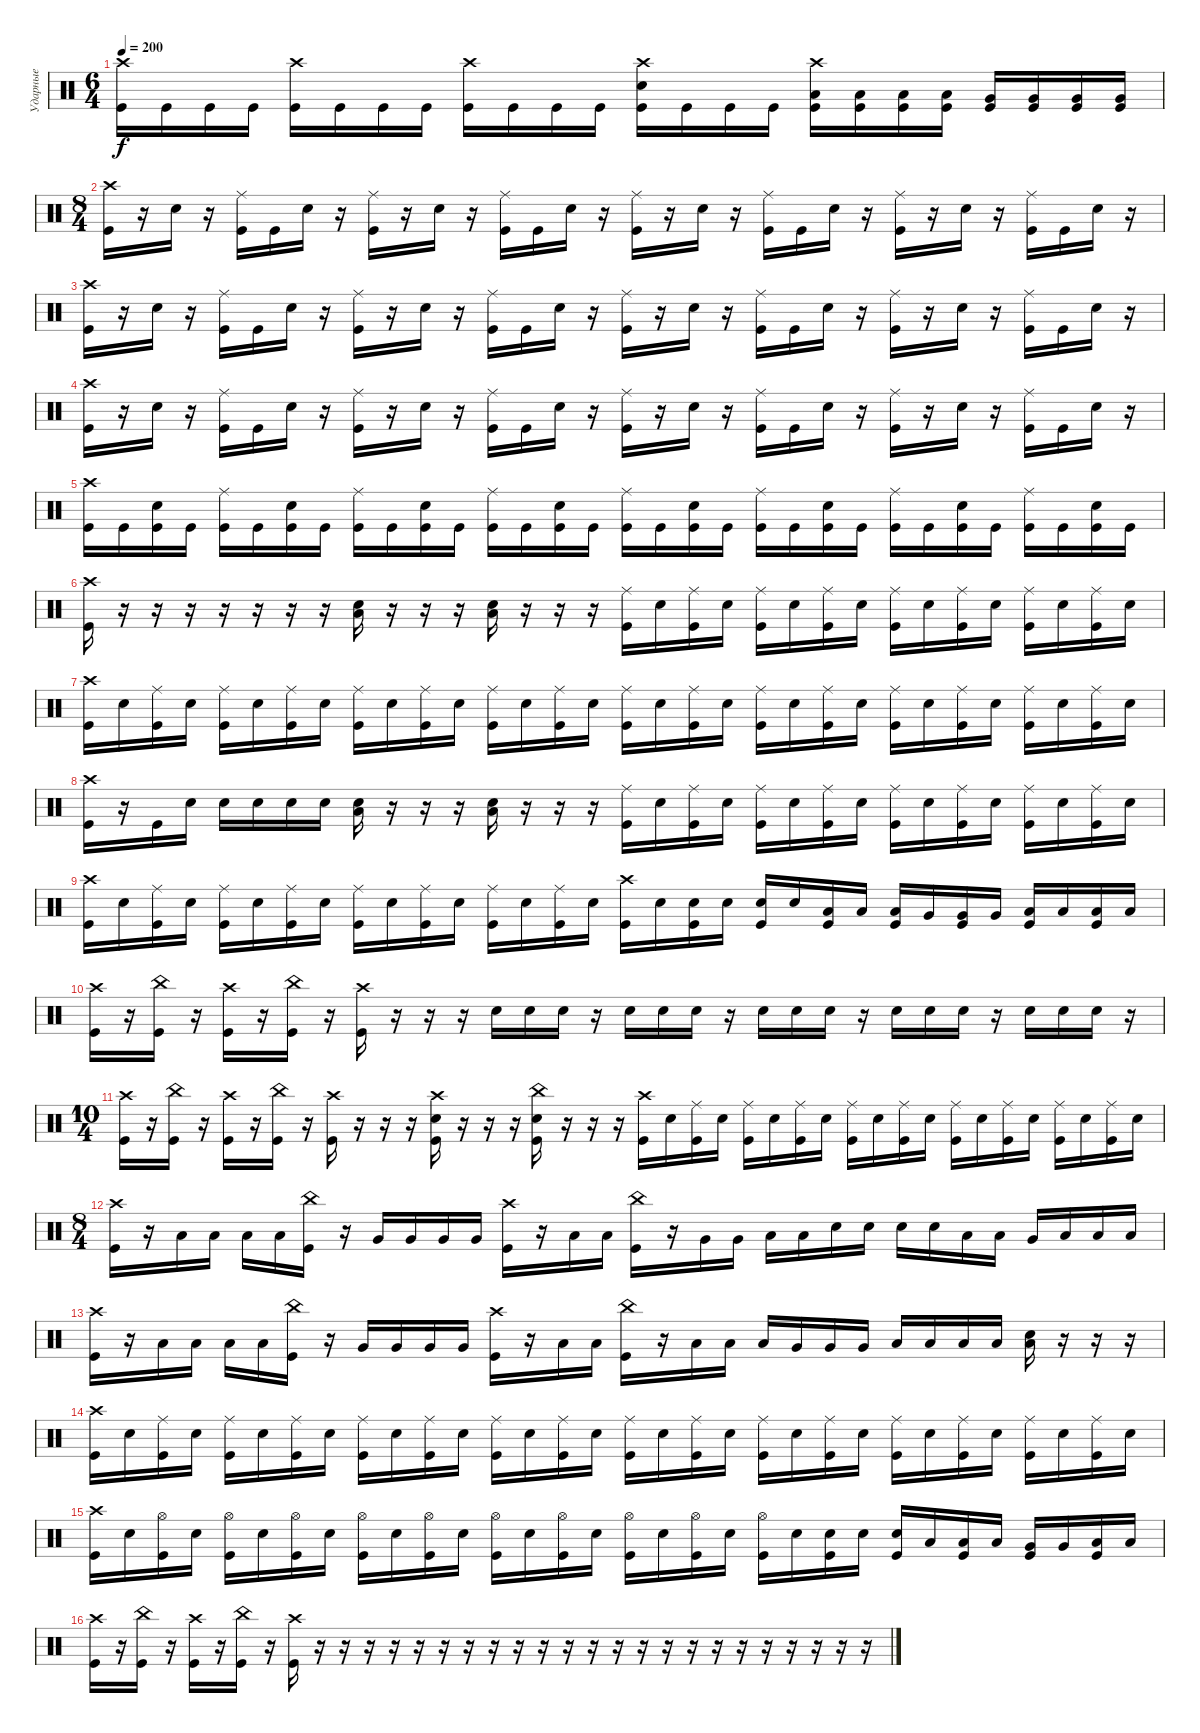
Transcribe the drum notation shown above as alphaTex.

\track ("Ударные" "Ударные") {instrument percussion}
\staff {score}
\articulation defaults
\ts (6 4)
\tempo 200
\clef neutral
\ks c
("Crash high (hit)" "Kick (hit)").16{dy f} "Kick (hit)".16 "Kick (hit)".16 "Kick (hit)".16 ("Crash high (hit)" "Kick (hit)").16 "Kick (hit)".16 "Kick (hit)".16 "Kick (hit)".16 ("Crash high (hit)" "Kick (hit)").16 "Kick (hit)".16 "Kick (hit)".16 "Kick (hit)".16 ("Crash high (hit)" "Snare (hit) 2" "Kick (hit)").16 "Kick (hit)".16 "Kick (hit)".16 "Kick (hit)".16 ("Crash high (hit)" "Low Tom (hit)" "Kick (hit)").16 ("Low Tom (hit)" "Kick (hit)").16 ("Low Tom (hit)" "Kick (hit)").16 ("Low Tom (hit)" "Kick (hit)").16 ("Very Low Tom (hit)" "Kick (hit)").16 ("Very Low Tom (hit)" "Kick (hit)").16 ("Very Low Tom (hit)" "Kick (hit)").16 ("Very Low Tom (hit)" "Kick (hit)").16 |
\ts (8 4)
("Crash high (hit)" "Kick (hit)").16 r.16 "Snare (hit) 2".16 r.16 ("Ride (middle)" "Kick (hit)").16 "Kick (hit)".16 "Snare (hit) 2".16 r.16 ("Ride (middle)" "Kick (hit)").16 r.16 "Snare (hit) 2".16 r.16 ("Ride (middle)" "Kick (hit)").16 "Kick (hit)".16 "Snare (hit) 2".16 r.16 ("Ride (middle)" "Kick (hit)").16 r.16 "Snare (hit) 2".16 r.16 ("Ride (middle)" "Kick (hit)").16 "Kick (hit)".16 "Snare (hit) 2".16 r.16 ("Ride (middle)" "Kick (hit)").16 r.16 "Snare (hit) 2".16 r.16 ("Ride (middle)" "Kick (hit)").16 "Kick (hit)".16 "Snare (hit) 2".16 r.16 |
("Crash high (hit)" "Kick (hit)").16 r.16 "Snare (hit) 2".16 r.16 ("Ride (middle)" "Kick (hit)").16 "Kick (hit)".16 "Snare (hit) 2".16 r.16 ("Ride (middle)" "Kick (hit)").16 r.16 "Snare (hit) 2".16 r.16 ("Ride (middle)" "Kick (hit)").16 "Kick (hit)".16 "Snare (hit) 2".16 r.16 ("Ride (middle)" "Kick (hit)").16 r.16 "Snare (hit) 2".16 r.16 ("Ride (middle)" "Kick (hit)").16 "Kick (hit)".16 "Snare (hit) 2".16 r.16 ("Ride (middle)" "Kick (hit)").16 r.16 "Snare (hit) 2".16 r.16 ("Ride (middle)" "Kick (hit)").16 "Kick (hit)".16 "Snare (hit) 2".16 r.16 |
("Crash high (hit)" "Kick (hit)").16 r.16 "Snare (hit) 2".16 r.16 ("Ride (middle)" "Kick (hit)").16 "Kick (hit)".16 "Snare (hit) 2".16 r.16 ("Ride (middle)" "Kick (hit)").16 r.16 "Snare (hit) 2".16 r.16 ("Ride (middle)" "Kick (hit)").16 "Kick (hit)".16 "Snare (hit) 2".16 r.16 ("Ride (middle)" "Kick (hit)").16 r.16 "Snare (hit) 2".16 r.16 ("Ride (middle)" "Kick (hit)").16 "Kick (hit)".16 "Snare (hit) 2".16 r.16 ("Ride (middle)" "Kick (hit)").16 r.16 "Snare (hit) 2".16 r.16 ("Ride (middle)" "Kick (hit)").16 "Kick (hit)".16 "Snare (hit) 2".16 r.16 |
("Crash high (hit)" "Kick (hit)").16 "Kick (hit)".16 ("Snare (hit) 2" "Kick (hit)").16 "Kick (hit)".16 ("Ride (middle)" "Kick (hit)").16 "Kick (hit)".16 ("Snare (hit) 2" "Kick (hit)").16 "Kick (hit)".16 ("Ride (middle)" "Kick (hit)").16 "Kick (hit)".16 ("Snare (hit) 2" "Kick (hit)").16 "Kick (hit)".16 ("Ride (middle)" "Kick (hit)").16 "Kick (hit)".16 ("Snare (hit) 2" "Kick (hit)").16 "Kick (hit)".16 ("Ride (middle)" "Kick (hit)").16 "Kick (hit)".16 ("Snare (hit) 2" "Kick (hit)").16 "Kick (hit)".16 ("Ride (middle)" "Kick (hit)").16 "Kick (hit)".16 ("Snare (hit) 2" "Kick (hit)").16 "Kick (hit)".16 ("Ride (middle)" "Kick (hit)").16 "Kick (hit)".16 ("Snare (hit) 2" "Kick (hit)").16 "Kick (hit)".16 ("Ride (middle)" "Kick (hit)").16 "Kick (hit)".16 ("Snare (hit) 2" "Kick (hit)").16 "Kick (hit)".16 |
("Crash high (hit)" "Kick (hit)").16 r.16 r.16 r.16 r.16 r.16 r.16 r.16 ("Low Floor Tom (hit)" "Snare (hit) 2").16 r.16 r.16 r.16 ("Low Floor Tom (hit)" "Snare (hit) 2").16 r.16 r.16 r.16 ("Ride (middle)" "Kick (hit)").16 "Snare (hit) 2".16 ("Ride (middle)" "Kick (hit)").16 "Snare (hit) 2".16 ("Ride (middle)" "Kick (hit)").16 "Snare (hit) 2".16 ("Ride (middle)" "Kick (hit)").16 "Snare (hit) 2".16 ("Ride (middle)" "Kick (hit)").16 "Snare (hit) 2".16 ("Ride (middle)" "Kick (hit)").16 "Snare (hit) 2".16 ("Ride (middle)" "Kick (hit)").16 "Snare (hit) 2".16 ("Ride (middle)" "Kick (hit)").16 "Snare (hit) 2".16 |
("Crash high (hit)" "Kick (hit)").16 "Snare (hit) 2".16 ("Ride (middle)" "Kick (hit)").16 "Snare (hit) 2".16 ("Ride (middle)" "Kick (hit)").16 "Snare (hit) 2".16 ("Ride (middle)" "Kick (hit)").16 "Snare (hit) 2".16 ("Ride (middle)" "Kick (hit)").16 "Snare (hit) 2".16 ("Ride (middle)" "Kick (hit)").16 "Snare (hit) 2".16 ("Ride (middle)" "Kick (hit)").16 "Snare (hit) 2".16 ("Ride (middle)" "Kick (hit)").16 "Snare (hit) 2".16 ("Ride (middle)" "Kick (hit)").16 "Snare (hit) 2".16 ("Ride (middle)" "Kick (hit)").16 "Snare (hit) 2".16 ("Ride (middle)" "Kick (hit)").16 "Snare (hit) 2".16 ("Ride (middle)" "Kick (hit)").16 "Snare (hit) 2".16 ("Ride (middle)" "Kick (hit)").16 "Snare (hit) 2".16 ("Ride (middle)" "Kick (hit)").16 "Snare (hit) 2".16 ("Ride (middle)" "Kick (hit)").16 "Snare (hit) 2".16 ("Ride (middle)" "Kick (hit)").16 "Snare (hit) 2".16 |
("Crash high (hit)" "Kick (hit)").16 r.16 "Kick (hit)".16 "Snare (hit) 2".16 "Snare (hit) 2".16 "Snare (hit) 2".16 "Snare (hit) 2".16 "Snare (hit) 2".16 ("Low Floor Tom (hit)" "Snare (hit) 2").16 r.16 r.16 r.16 ("Low Floor Tom (hit)" "Snare (hit) 2").16 r.16 r.16 r.16 ("Ride (middle)" "Kick (hit)").16 "Snare (hit) 2".16 ("Ride (middle)" "Kick (hit)").16 "Snare (hit) 2".16 ("Ride (middle)" "Kick (hit)").16 "Snare (hit) 2".16 ("Ride (middle)" "Kick (hit)").16 "Snare (hit) 2".16 ("Ride (middle)" "Kick (hit)").16 "Snare (hit) 2".16 ("Ride (middle)" "Kick (hit)").16 "Snare (hit) 2".16 ("Ride (middle)" "Kick (hit)").16 "Snare (hit) 2".16 ("Ride (middle)" "Kick (hit)").16 "Snare (hit) 2".16 |
("Crash high (hit)" "Kick (hit)").16 "Snare (hit) 2".16 ("Ride (middle)" "Kick (hit)").16 "Snare (hit) 2".16 ("Ride (middle)" "Kick (hit)").16 "Snare (hit) 2".16 ("Ride (middle)" "Kick (hit)").16 "Snare (hit) 2".16 ("Ride (middle)" "Kick (hit)").16 "Snare (hit) 2".16 ("Ride (middle)" "Kick (hit)").16 "Snare (hit) 2".16 ("Ride (middle)" "Kick (hit)").16 "Snare (hit) 2".16 ("Ride (middle)" "Kick (hit)").16 "Snare (hit) 2".16 ("Crash high (hit)" "Kick (hit)").16 "Snare (hit) 2".16 ("Snare (hit) 2" "Kick (hit)").16 "Snare (hit) 2".16 ("Snare (hit) 2" "Kick (hit)").16 "Snare (hit) 2".16 ("Low Tom (hit)" "Kick (hit)").16 "Low Tom (hit)".16 ("Low Tom (hit)" "Kick (hit)").16 "Very Low Tom (hit)".16 ("Very Low Tom (hit)" "Kick (hit)").16 "Very Low Tom (hit)".16 ("Low Floor Tom (hit)" "Kick (hit)").16 "Low Floor Tom (hit)".16 ("Low Floor Tom (hit)" "Kick (hit)").16 "Low Floor Tom (hit)".16 |
("Crash high (hit)" "Kick (hit)").16 r.16 ("China (hit)" "Kick (hit)").16 r.16 ("Crash high (hit)" "Kick (hit)").16 r.16 ("China (hit)" "Kick (hit)").16 r.16 ("Crash high (hit)" "Kick (hit)").16 r.16 r.16 r.16 "Snare (hit) 2".16 "Snare (hit) 2".16 "Snare (hit) 2".16 r.16 "Snare (hit) 2".16 "Snare (hit) 2".16 "Snare (hit) 2".16 r.16 "Snare (hit) 2".16 "Snare (hit) 2".16 "Snare (hit) 2".16 r.16 "Snare (hit) 2".16 "Snare (hit) 2".16 "Snare (hit) 2".16 r.16 "Snare (hit) 2".16 "Snare (hit) 2".16 "Snare (hit) 2".16 r.16 |
\ts (10 4)
("Crash high (hit)" "Kick (hit)").16 r.16 ("China (hit)" "Kick (hit)").16 r.16 ("Crash high (hit)" "Kick (hit)").16 r.16 ("China (hit)" "Kick (hit)").16 r.16 ("Crash high (hit)" "Kick (hit)").16 r.16 r.16 r.16 ("Crash high (hit)" "Snare (hit) 2" "Kick (hit)").16 r.16 r.16 r.16 ("China (hit)" "Snare (hit) 2" "Kick (hit)").16 r.16 r.16 r.16 ("Crash high (hit)" "Kick (hit)").16 "Snare (hit) 2".16 ("Ride (middle)" "Kick (hit)").16 "Snare (hit) 2".16 ("Ride (middle)" "Kick (hit)").16 "Snare (hit) 2".16 ("Ride (middle)" "Kick (hit)").16 "Snare (hit) 2".16 ("Ride (middle)" "Kick (hit)").16 "Snare (hit) 2".16 ("Ride (middle)" "Kick (hit)").16 "Snare (hit) 2".16 ("Ride (middle)" "Kick (hit)").16 "Snare (hit) 2".16 ("Ride (middle)" "Kick (hit)").16 "Snare (hit) 2".16 ("Ride (middle)" "Kick (hit)").16 "Snare (hit) 2".16 ("Ride (middle)" "Kick (hit)").16 "Snare (hit) 2".16 |
\ts (8 4)
("Crash high (hit)" "Kick (hit)").16 r.16 "Low Tom (hit)".16 "Low Tom (hit)".16 "Low Tom (hit)".16 "Low Tom (hit)".16 ("China (hit)" "Kick (hit)").16 r.16 "Very Low Tom (hit)".16 "Very Low Tom (hit)".16 "Very Low Tom (hit)".16 "Very Low Tom (hit)".16 ("Crash high (hit)" "Kick (hit)").16 r.16 "Low Floor Tom (hit)".16 "Low Floor Tom (hit)".16 ("China (hit)" "Kick (hit)").16 r.16 "Very Low Tom (hit)".16 "Very Low Tom (hit)".16 "Low Floor Tom (hit)".16 "Low Floor Tom (hit)".16 "Snare (hit) 2".16 "Snare (hit) 2".16 "Snare (hit) 2".16 "Snare (hit) 2".16 "Low Tom (hit)".16 "Low Tom (hit)".16 "Very Low Tom (hit)".16 "Low Tom (hit)".16 "Low Floor Tom (hit)".16 "Low Floor Tom (hit)".16 |
("Crash high (hit)" "Kick (hit)").16 r.16 "Low Tom (hit)".16 "Low Tom (hit)".16 "Low Tom (hit)".16 "Low Tom (hit)".16 ("China (hit)" "Kick (hit)").16 r.16 "Very Low Tom (hit)".16 "Very Low Tom (hit)".16 "Very Low Tom (hit)".16 "Very Low Tom (hit)".16 ("Crash high (hit)" "Kick (hit)").16 r.16 "Low Floor Tom (hit)".16 "Low Floor Tom (hit)".16 ("China (hit)" "Kick (hit)").16 r.16 "Low Tom (hit)".16 "Low Tom (hit)".16 "Low Tom (hit)".16 "Very Low Tom (hit)".16 "Very Low Tom (hit)".16 "Very Low Tom (hit)".16 "Low Floor Tom (hit)".16 "Low Floor Tom (hit)".16 "Low Floor Tom (hit)".16 "Low Floor Tom (hit)".16 ("Low Floor Tom (hit)" "Snare (hit) 2").16 r.16 r.16 r.16 |
("Crash high (hit)" "Kick (hit)").16 "Snare (hit) 2".16 ("Ride (middle)" "Kick (hit)").16 "Snare (hit) 2".16 ("Ride (middle)" "Kick (hit)").16 "Snare (hit) 2".16 ("Ride (middle)" "Kick (hit)").16 "Snare (hit) 2".16 ("Ride (middle)" "Kick (hit)").16 "Snare (hit) 2".16 ("Ride (middle)" "Kick (hit)").16 "Snare (hit) 2".16 ("Ride (middle)" "Kick (hit)").16 "Snare (hit) 2".16 ("Ride (middle)" "Kick (hit)").16 "Snare (hit) 2".16 ("Ride (middle)" "Kick (hit)").16 "Snare (hit) 2".16 ("Ride (middle)" "Kick (hit)").16 "Snare (hit) 2".16 ("Ride (middle)" "Kick (hit)").16 "Snare (hit) 2".16 ("Ride (middle)" "Kick (hit)").16 "Snare (hit) 2".16 ("Ride (middle)" "Kick (hit)").16 "Snare (hit) 2".16 ("Ride (middle)" "Kick (hit)").16 "Snare (hit) 2".16 ("Ride (middle)" "Kick (hit)").16 "Snare (hit) 2".16 ("Ride (middle)" "Kick (hit)").16 "Snare (hit) 2".16 |
("Crash high (hit)" "Kick (hit)").16 "Snare (hit) 2".16 ("Hi-Hat (open)" "Kick (hit)").16 "Snare (hit) 2".16 ("Hi-Hat (open)" "Kick (hit)").16 "Snare (hit) 2".16 ("Hi-Hat (open)" "Kick (hit)").16 "Snare (hit) 2".16 ("Hi-Hat (open)" "Kick (hit)").16 "Snare (hit) 2".16 ("Hi-Hat (open)" "Kick (hit)").16 "Snare (hit) 2".16 ("Hi-Hat (open)" "Kick (hit)").16 "Snare (hit) 2".16 ("Hi-Hat (open)" "Kick (hit)").16 "Snare (hit) 2".16 ("Hi-Hat (open)" "Kick (hit)").16 "Snare (hit) 2".16 ("Hi-Hat (open)" "Kick (hit)").16 "Snare (hit) 2".16 ("Hi-Hat (open)" "Kick (hit)").16 "Snare (hit) 2".16 ("Snare (hit) 2" "Kick (hit)").16 "Snare (hit) 2".16 ("Snare (hit) 2" "Kick (hit)").16 "Low Tom (hit)".16 ("Low Tom (hit)" "Kick (hit)").16 "Low Tom (hit)".16 ("Very Low Tom (hit)" "Kick (hit)").16 "Very Low Tom (hit)".16 ("Low Floor Tom (hit)" "Kick (hit)").16 "Low Floor Tom (hit)".16 |
("Crash high (hit)" "Kick (hit)").16 r.16 ("China (hit)" "Kick (hit)").16 r.16 ("Crash high (hit)" "Kick (hit)").16 r.16 ("China (hit)" "Kick (hit)").16 r.16 ("Crash high (hit)" "Kick (hit)").16 r.16 r.16 r.16 r.16 r.16 r.16 r.16 r.16 r.16 r.16 r.16 r.16 r.16 r.16 r.16 r.16 r.16 r.16 r.16 r.16 r.16 r.16 r.16
